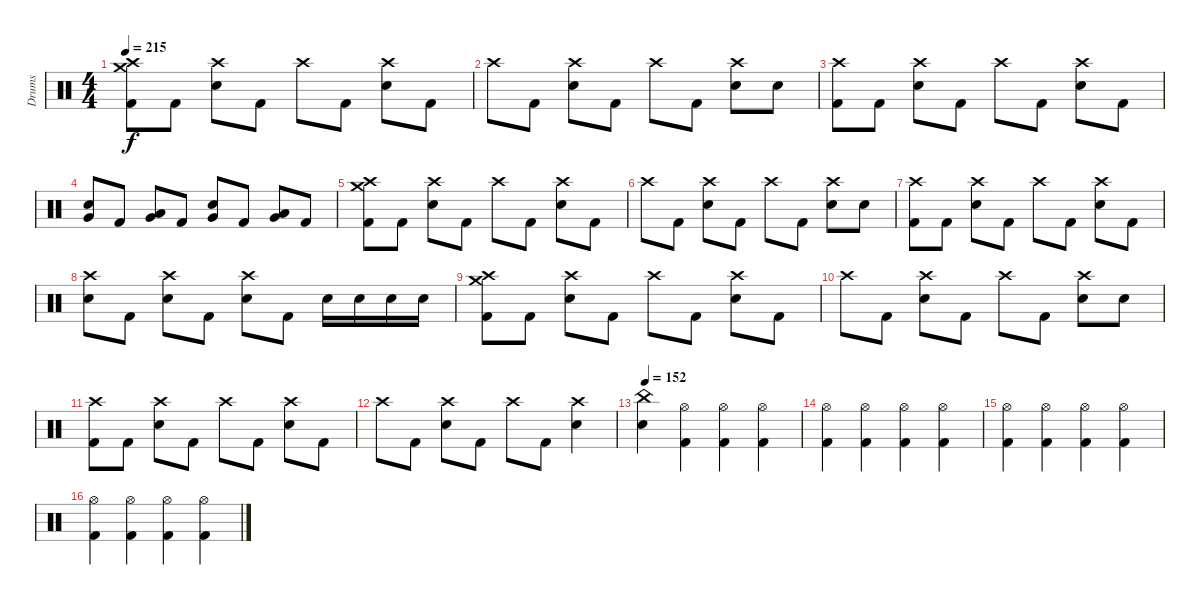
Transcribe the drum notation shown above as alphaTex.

\track ("Drums" "Drums") {instrument percussion}
\staff {score}
\articulation defaults
\ts (4 4)
\tempo 215
\clef neutral
\ks c
("Crash high (hit)" "Crash medium (hit)" "Kick (hit) 2").8{dy f} "Kick (hit) 2".8 ("Crash high (hit)" "Electric Snare (hit)").8 "Kick (hit) 2".8 "Crash high (hit)".8 "Kick (hit) 2".8 ("Crash high (hit)" "Electric Snare (hit)").8 "Kick (hit) 2".8 |
"Crash high (hit)".8 "Kick (hit) 2".8 ("Crash high (hit)" "Electric Snare (hit)").8 "Kick (hit) 2".8 "Crash high (hit)".8 "Kick (hit) 2".8 ("Crash high (hit)" "Electric Snare (hit)").8 "Electric Snare (hit)".8 |
("Crash high (hit)" "Kick (hit) 2").8 "Kick (hit) 2".8 ("Crash high (hit)" "Electric Snare (hit)").8 "Kick (hit) 2".8 "Crash high (hit)".8 "Kick (hit) 2".8 ("Crash high (hit)" "Electric Snare (hit)").8 "Kick (hit) 2".8 |
("Very Low Tom (hit)" "Electric Snare (hit)").8 "Kick (hit) 2".8 ("Very Low Tom (hit)" "Low Tom (hit)").8 "Kick (hit) 2".8 ("Very Low Tom (hit)" "Electric Snare (hit)").8 "Kick (hit) 2".8 ("Very Low Tom (hit)" "Low Tom (hit)").8 "Kick (hit) 2".8 |
("Crash high (hit)" "Crash medium (hit)" "Kick (hit) 2").8 "Kick (hit) 2".8 ("Crash high (hit)" "Electric Snare (hit)").8 "Kick (hit) 2".8 "Crash high (hit)".8 "Kick (hit) 2".8 ("Crash high (hit)" "Electric Snare (hit)").8 "Kick (hit) 2".8 |
"Crash high (hit)".8 "Kick (hit) 2".8 ("Crash high (hit)" "Electric Snare (hit)").8 "Kick (hit) 2".8 "Crash high (hit)".8 "Kick (hit) 2".8 ("Crash high (hit)" "Electric Snare (hit)").8 "Electric Snare (hit)".8 |
("Crash high (hit)" "Kick (hit) 2").8 "Kick (hit) 2".8 ("Crash high (hit)" "Electric Snare (hit)").8 "Kick (hit) 2".8 "Crash high (hit)".8 "Kick (hit) 2".8 ("Crash high (hit)" "Electric Snare (hit)").8 "Kick (hit) 2".8 |
("Crash high (hit)" "Electric Snare (hit)").8 "Kick (hit) 2".8 ("Crash high (hit)" "Electric Snare (hit)").8 "Kick (hit) 2".8 ("Crash high (hit)" "Electric Snare (hit)").8 "Kick (hit) 2".8 "Electric Snare (hit)".16 "Electric Snare (hit)".16 "Electric Snare (hit)".16 "Electric Snare (hit)".16 |
("Crash high (hit)" "Crash medium (hit)" "Kick (hit) 2").8 "Kick (hit) 2".8 ("Crash high (hit)" "Electric Snare (hit)").8 "Kick (hit) 2".8 "Crash high (hit)".8 "Kick (hit) 2".8 ("Crash high (hit)" "Electric Snare (hit)").8 "Kick (hit) 2".8 |
"Crash high (hit)".8 "Kick (hit) 2".8 ("Crash high (hit)" "Electric Snare (hit)").8 "Kick (hit) 2".8 "Crash high (hit)".8 "Kick (hit) 2".8 ("Crash high (hit)" "Electric Snare (hit)").8 "Electric Snare (hit)".8 |
("Crash high (hit)" "Kick (hit) 2").8 "Kick (hit) 2".8 ("Crash high (hit)" "Electric Snare (hit)").8 "Kick (hit) 2".8 "Crash high (hit)".8 "Kick (hit) 2".8 ("Crash high (hit)" "Electric Snare (hit)").8 "Kick (hit) 2".8 |
"Crash high (hit)".8 "Kick (hit) 2".8 ("Crash high (hit)" "Electric Snare (hit)").8 "Kick (hit) 2".8 "Crash high (hit)".8 "Kick (hit) 2".8 ("Crash high (hit)" "Electric Snare (hit)").4 |
\tempo 152
("China (hit)" "Electric Snare (hit)").4 ("Hi-Hat (open)" "Kick (hit) 2").4 ("Hi-Hat (open)" "Kick (hit) 2").4 ("Hi-Hat (open)" "Kick (hit) 2").4 |
("Hi-Hat (open)" "Kick (hit) 2").4 ("Hi-Hat (open)" "Kick (hit) 2").4 ("Hi-Hat (open)" "Kick (hit) 2").4 ("Hi-Hat (open)" "Kick (hit) 2").4 |
("Hi-Hat (open)" "Kick (hit) 2").4 ("Hi-Hat (open)" "Kick (hit) 2").4 ("Hi-Hat (open)" "Kick (hit) 2").4 ("Hi-Hat (open)" "Kick (hit) 2").4 |
("Hi-Hat (open)" "Kick (hit) 2").4 ("Hi-Hat (open)" "Kick (hit) 2").4 ("Hi-Hat (open)" "Kick (hit) 2").4 ("Hi-Hat (open)" "Kick (hit) 2").4
